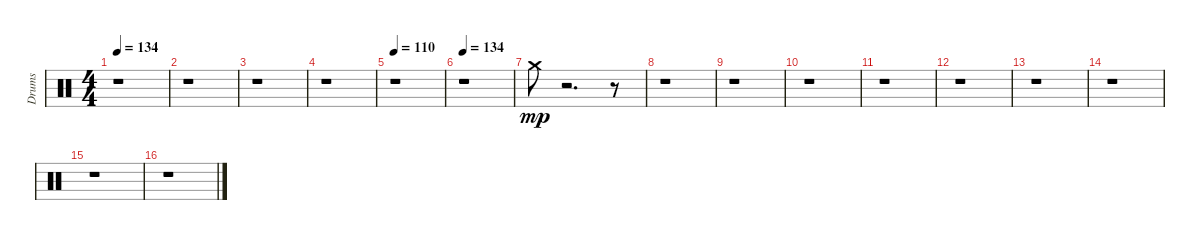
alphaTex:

\track ("Drums" "Drums") {instrument percussion}
\staff {score}
\articulation defaults
\ts (4 4)
\tempo 134
\clef neutral
\ks c
r.1{dy mp} |
r.1 |
r.1 |
r.1 |
\tempo 110
r.1 |
\tempo 134
r.1 |
"Crash medium (hit)".8 r.2{d} r.8 |
r.1 |
r.1 |
r.1 |
r.1 |
r.1 |
r.1 |
r.1 |
r.1 |
r.1
